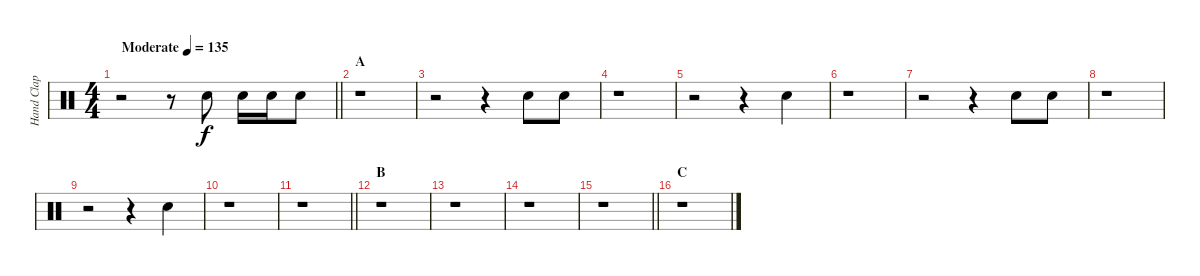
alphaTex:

\track ("Hand Clap" "Hand Clap") {instrument percussion}
\staff {score}
\articulation defaults
\ts (4 4)
\tempo (135 "Moderate")
\clef neutral
\barLineRight lightlight
\ks c
r.2{dy f} r.8 "Hand Clap (hit)".8 "Hand Clap (hit)".16 "Hand Clap (hit)".16 "Hand Clap (hit)".8 |
\section ("" "A")
r.1 |
r.2 r.4 "Hand Clap (hit)".8 "Hand Clap (hit)".8 |
r.1 |
r.2 r.4 "Hand Clap (hit)".4 |
r.1 |
r.2 r.4 "Hand Clap (hit)".8 "Hand Clap (hit)".8 |
r.1 |
r.2 r.4 "Hand Clap (hit)".4 |
r.1 |
\barLineRight lightlight
r.1 |
\section ("" "B")
r.1 |
r.1 |
r.1 |
\barLineRight lightlight
r.1 |
\section ("" "C")
r.1
